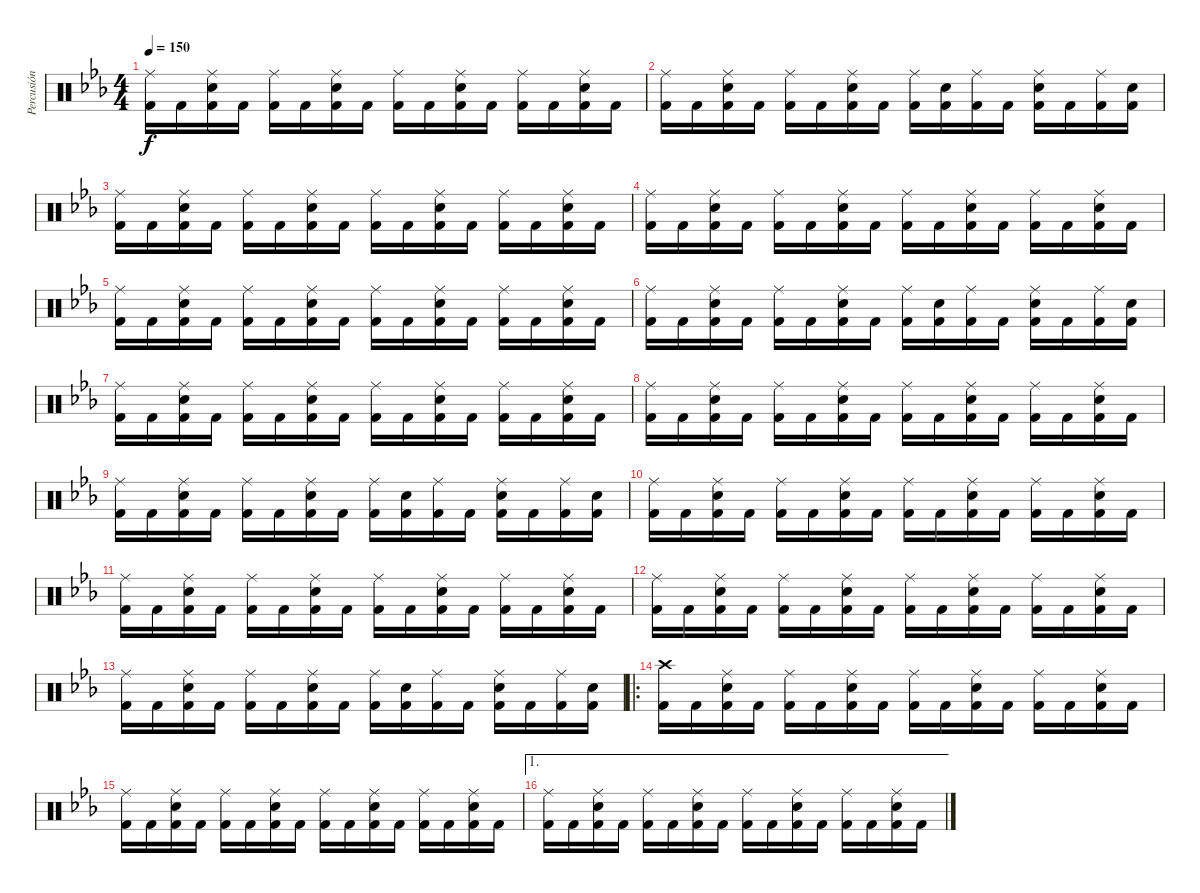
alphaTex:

\track ("Percusión" "Percusión") {instrument percussion}
\staff {score}
\articulation defaults
\ts (4 4)
\tempo 150
\clef neutral
\ks cminor
("Ride (middle)" "Kick (hit) 2").16{dy f} "Kick (hit) 2".16 ("Ride (middle)" "Electric Snare (hit)" "Kick (hit) 2").16 "Kick (hit) 2".16 ("Ride (middle)" "Kick (hit) 2").16 "Kick (hit) 2".16 ("Ride (middle)" "Electric Snare (hit)" "Kick (hit) 2").16 "Kick (hit) 2".16 ("Ride (middle)" "Kick (hit) 2").16 "Kick (hit) 2".16 ("Ride (middle)" "Electric Snare (hit)" "Kick (hit) 2").16 "Kick (hit) 2".16 ("Ride (middle)" "Kick (hit) 2").16 "Kick (hit) 2".16 ("Ride (middle)" "Electric Snare (hit)" "Kick (hit) 2").16 "Kick (hit) 2".16 |
("Ride (middle)" "Kick (hit) 2").16 "Kick (hit) 2".16 ("Ride (middle)" "Electric Snare (hit)" "Kick (hit) 2").16 "Kick (hit) 2".16 ("Ride (middle)" "Kick (hit) 2").16 "Kick (hit) 2".16 ("Ride (middle)" "Electric Snare (hit)" "Kick (hit) 2").16 "Kick (hit) 2".16 ("Ride (middle)" "Kick (hit) 2").16 ("Electric Snare (hit)" "Kick (hit) 2").16 ("Ride (middle)" "Kick (hit) 2").16 "Kick (hit) 2".16 ("Ride (middle)" "Electric Snare (hit)" "Kick (hit) 2").16 "Kick (hit) 2".16 ("Ride (middle)" "Kick (hit) 2").16 ("Electric Snare (hit)" "Kick (hit) 2").16 |
("Ride (middle)" "Kick (hit) 2").16 "Kick (hit) 2".16 ("Ride (middle)" "Electric Snare (hit)" "Kick (hit) 2").16 "Kick (hit) 2".16 ("Ride (middle)" "Kick (hit) 2").16 "Kick (hit) 2".16 ("Ride (middle)" "Electric Snare (hit)" "Kick (hit) 2").16 "Kick (hit) 2".16 ("Ride (middle)" "Kick (hit) 2").16 "Kick (hit) 2".16 ("Ride (middle)" "Electric Snare (hit)" "Kick (hit) 2").16 "Kick (hit) 2".16 ("Ride (middle)" "Kick (hit) 2").16 "Kick (hit) 2".16 ("Ride (middle)" "Electric Snare (hit)" "Kick (hit) 2").16 "Kick (hit) 2".16 |
("Ride (middle)" "Kick (hit) 2").16 "Kick (hit) 2".16 ("Ride (middle)" "Electric Snare (hit)" "Kick (hit) 2").16 "Kick (hit) 2".16 ("Ride (middle)" "Kick (hit) 2").16 "Kick (hit) 2".16 ("Ride (middle)" "Electric Snare (hit)" "Kick (hit) 2").16 "Kick (hit) 2".16 ("Ride (middle)" "Kick (hit) 2").16 "Kick (hit) 2".16 ("Ride (middle)" "Electric Snare (hit)" "Kick (hit) 2").16 "Kick (hit) 2".16 ("Ride (middle)" "Kick (hit) 2").16 "Kick (hit) 2".16 ("Ride (middle)" "Electric Snare (hit)" "Kick (hit) 2").16 "Kick (hit) 2".16 |
("Ride (middle)" "Kick (hit) 2").16 "Kick (hit) 2".16 ("Ride (middle)" "Electric Snare (hit)" "Kick (hit) 2").16 "Kick (hit) 2".16 ("Ride (middle)" "Kick (hit) 2").16 "Kick (hit) 2".16 ("Ride (middle)" "Electric Snare (hit)" "Kick (hit) 2").16 "Kick (hit) 2".16 ("Ride (middle)" "Kick (hit) 2").16 "Kick (hit) 2".16 ("Ride (middle)" "Electric Snare (hit)" "Kick (hit) 2").16 "Kick (hit) 2".16 ("Ride (middle)" "Kick (hit) 2").16 "Kick (hit) 2".16 ("Ride (middle)" "Electric Snare (hit)" "Kick (hit) 2").16 "Kick (hit) 2".16 |
("Ride (middle)" "Kick (hit) 2").16 "Kick (hit) 2".16 ("Ride (middle)" "Electric Snare (hit)" "Kick (hit) 2").16 "Kick (hit) 2".16 ("Ride (middle)" "Kick (hit) 2").16 "Kick (hit) 2".16 ("Ride (middle)" "Electric Snare (hit)" "Kick (hit) 2").16 "Kick (hit) 2".16 ("Ride (middle)" "Kick (hit) 2").16 ("Electric Snare (hit)" "Kick (hit) 2").16 ("Ride (middle)" "Kick (hit) 2").16 "Kick (hit) 2".16 ("Ride (middle)" "Electric Snare (hit)" "Kick (hit) 2").16 "Kick (hit) 2".16 ("Ride (middle)" "Kick (hit) 2").16 ("Electric Snare (hit)" "Kick (hit) 2").16 |
("Ride (middle)" "Kick (hit) 2").16 "Kick (hit) 2".16 ("Ride (middle)" "Electric Snare (hit)" "Kick (hit) 2").16 "Kick (hit) 2".16 ("Ride (middle)" "Kick (hit) 2").16 "Kick (hit) 2".16 ("Ride (middle)" "Electric Snare (hit)" "Kick (hit) 2").16 "Kick (hit) 2".16 ("Ride (middle)" "Kick (hit) 2").16 "Kick (hit) 2".16 ("Ride (middle)" "Electric Snare (hit)" "Kick (hit) 2").16 "Kick (hit) 2".16 ("Ride (middle)" "Kick (hit) 2").16 "Kick (hit) 2".16 ("Ride (middle)" "Electric Snare (hit)" "Kick (hit) 2").16 "Kick (hit) 2".16 |
("Ride (middle)" "Kick (hit) 2").16 "Kick (hit) 2".16 ("Ride (middle)" "Electric Snare (hit)" "Kick (hit) 2").16 "Kick (hit) 2".16 ("Ride (middle)" "Kick (hit) 2").16 "Kick (hit) 2".16 ("Ride (middle)" "Electric Snare (hit)" "Kick (hit) 2").16 "Kick (hit) 2".16 ("Ride (middle)" "Kick (hit) 2").16 "Kick (hit) 2".16 ("Ride (middle)" "Electric Snare (hit)" "Kick (hit) 2").16 "Kick (hit) 2".16 ("Ride (middle)" "Kick (hit) 2").16 "Kick (hit) 2".16 ("Ride (middle)" "Electric Snare (hit)" "Kick (hit) 2").16 "Kick (hit) 2".16 |
("Ride (middle)" "Kick (hit) 2").16 "Kick (hit) 2".16 ("Ride (middle)" "Electric Snare (hit)" "Kick (hit) 2").16 "Kick (hit) 2".16 ("Ride (middle)" "Kick (hit) 2").16 "Kick (hit) 2".16 ("Ride (middle)" "Electric Snare (hit)" "Kick (hit) 2").16 "Kick (hit) 2".16 ("Ride (middle)" "Kick (hit) 2").16 ("Electric Snare (hit)" "Kick (hit) 2").16 ("Ride (middle)" "Kick (hit) 2").16 "Kick (hit) 2".16 ("Ride (middle)" "Electric Snare (hit)" "Kick (hit) 2").16 "Kick (hit) 2".16 ("Ride (middle)" "Kick (hit) 2").16 ("Electric Snare (hit)" "Kick (hit) 2").16 |
("Ride (middle)" "Kick (hit) 2").16 "Kick (hit) 2".16 ("Ride (middle)" "Electric Snare (hit)" "Kick (hit) 2").16 "Kick (hit) 2".16 ("Ride (middle)" "Kick (hit) 2").16 "Kick (hit) 2".16 ("Ride (middle)" "Electric Snare (hit)" "Kick (hit) 2").16 "Kick (hit) 2".16 ("Ride (middle)" "Kick (hit) 2").16 "Kick (hit) 2".16 ("Ride (middle)" "Electric Snare (hit)" "Kick (hit) 2").16 "Kick (hit) 2".16 ("Ride (middle)" "Kick (hit) 2").16 "Kick (hit) 2".16 ("Ride (middle)" "Electric Snare (hit)" "Kick (hit) 2").16 "Kick (hit) 2".16 |
("Ride (middle)" "Kick (hit) 2").16 "Kick (hit) 2".16 ("Ride (middle)" "Electric Snare (hit)" "Kick (hit) 2").16 "Kick (hit) 2".16 ("Ride (middle)" "Kick (hit) 2").16 "Kick (hit) 2".16 ("Ride (middle)" "Electric Snare (hit)" "Kick (hit) 2").16 "Kick (hit) 2".16 ("Ride (middle)" "Kick (hit) 2").16 "Kick (hit) 2".16 ("Ride (middle)" "Electric Snare (hit)" "Kick (hit) 2").16 "Kick (hit) 2".16 ("Ride (middle)" "Kick (hit) 2").16 "Kick (hit) 2".16 ("Ride (middle)" "Electric Snare (hit)" "Kick (hit) 2").16 "Kick (hit) 2".16 |
("Ride (middle)" "Kick (hit) 2").16 "Kick (hit) 2".16 ("Ride (middle)" "Electric Snare (hit)" "Kick (hit) 2").16 "Kick (hit) 2".16 ("Ride (middle)" "Kick (hit) 2").16 "Kick (hit) 2".16 ("Ride (middle)" "Electric Snare (hit)" "Kick (hit) 2").16 "Kick (hit) 2".16 ("Ride (middle)" "Kick (hit) 2").16 "Kick (hit) 2".16 ("Ride (middle)" "Electric Snare (hit)" "Kick (hit) 2").16 "Kick (hit) 2".16 ("Ride (middle)" "Kick (hit) 2").16 "Kick (hit) 2".16 ("Ride (middle)" "Electric Snare (hit)" "Kick (hit) 2").16 "Kick (hit) 2".16 |
("Ride (middle)" "Kick (hit) 2").16 "Kick (hit) 2".16 ("Ride (middle)" "Electric Snare (hit)" "Kick (hit) 2").16 "Kick (hit) 2".16 ("Ride (middle)" "Kick (hit) 2").16 "Kick (hit) 2".16 ("Ride (middle)" "Electric Snare (hit)" "Kick (hit) 2").16 "Kick (hit) 2".16 ("Ride (middle)" "Kick (hit) 2").16 ("Electric Snare (hit)" "Kick (hit) 2").16 ("Ride (middle)" "Kick (hit) 2").16 "Kick (hit) 2".16 ("Ride (middle)" "Electric Snare (hit)" "Kick (hit) 2").16 "Kick (hit) 2".16 ("Ride (middle)" "Kick (hit) 2").16 ("Electric Snare (hit)" "Kick (hit) 2").16 |
\ro
("Crash high (hit)" "Kick (hit) 2").16 "Kick (hit) 2".16 ("Ride (middle)" "Electric Snare (hit)" "Kick (hit) 2").16 "Kick (hit) 2".16 ("Ride (middle)" "Kick (hit) 2").16 "Kick (hit) 2".16 ("Ride (middle)" "Electric Snare (hit)" "Kick (hit) 2").16 "Kick (hit) 2".16 ("Ride (middle)" "Kick (hit) 2").16 "Kick (hit) 2".16 ("Ride (middle)" "Electric Snare (hit)" "Kick (hit) 2").16 "Kick (hit) 2".16 ("Ride (middle)" "Kick (hit) 2").16 "Kick (hit) 2".16 ("Ride (middle)" "Electric Snare (hit)" "Kick (hit) 2").16 "Kick (hit) 2".16 |
("Ride (middle)" "Kick (hit) 2").16 "Kick (hit) 2".16 ("Ride (middle)" "Electric Snare (hit)" "Kick (hit) 2").16 "Kick (hit) 2".16 ("Ride (middle)" "Kick (hit) 2").16 "Kick (hit) 2".16 ("Ride (middle)" "Electric Snare (hit)" "Kick (hit) 2").16 "Kick (hit) 2".16 ("Ride (middle)" "Kick (hit) 2").16 "Kick (hit) 2".16 ("Ride (middle)" "Electric Snare (hit)" "Kick (hit) 2").16 "Kick (hit) 2".16 ("Ride (middle)" "Kick (hit) 2").16 "Kick (hit) 2".16 ("Ride (middle)" "Electric Snare (hit)" "Kick (hit) 2").16 "Kick (hit) 2".16 |
\ae 1
("Ride (middle)" "Kick (hit) 2").16 "Kick (hit) 2".16 ("Ride (middle)" "Electric Snare (hit)" "Kick (hit) 2").16 "Kick (hit) 2".16 ("Ride (middle)" "Kick (hit) 2").16 "Kick (hit) 2".16 ("Ride (middle)" "Electric Snare (hit)" "Kick (hit) 2").16 "Kick (hit) 2".16 ("Ride (middle)" "Kick (hit) 2").16 "Kick (hit) 2".16 ("Ride (middle)" "Electric Snare (hit)" "Kick (hit) 2").16 "Kick (hit) 2".16 ("Ride (middle)" "Kick (hit) 2").16 "Kick (hit) 2".16 ("Ride (middle)" "Electric Snare (hit)" "Kick (hit) 2").16 "Kick (hit) 2".16
